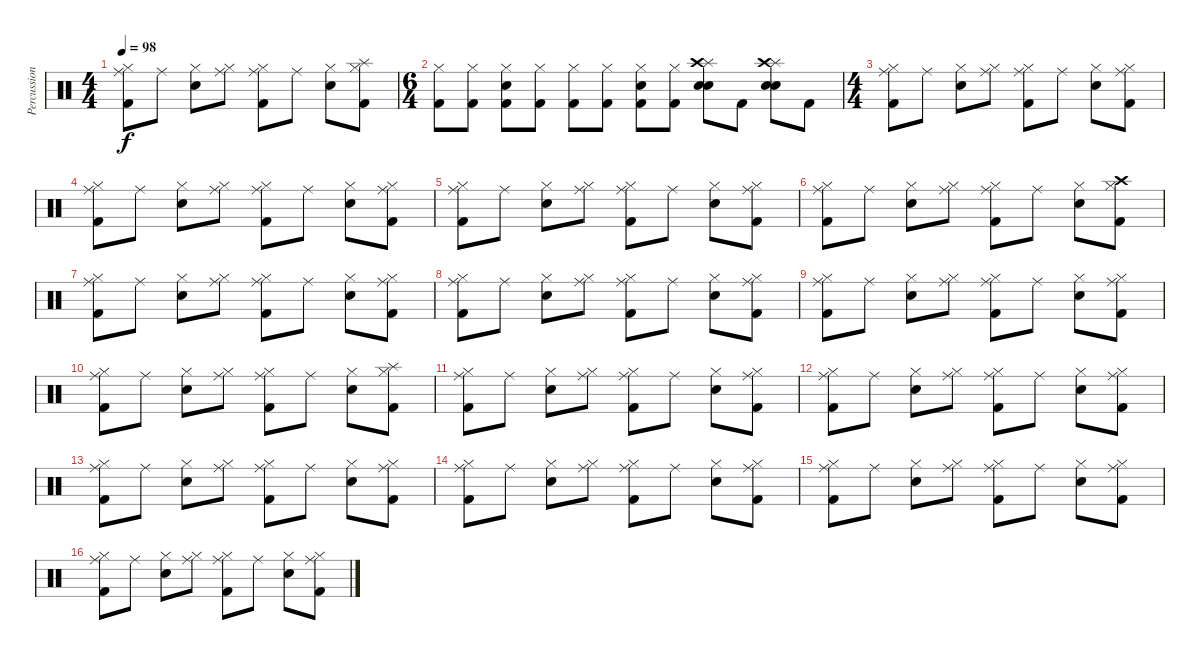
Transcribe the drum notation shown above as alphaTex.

\track ("Percussion" "Percussion") {instrument percussion}
\staff {score}
\articulation defaults
\ts (4 4)
\tempo 98
\clef neutral
\ks c
("Hi-Hat (closed)" "Kick (hit) 2" "Ride (middle)").8{dy f} "Ride (middle)".8 ("Hi-Hat (closed)" "Electric Snare (hit)").8 ("Hi-Hat (closed)" "Ride (middle)").8 ("Hi-Hat (closed)" "Kick (hit) 2" "Ride (middle)").8 "Ride (middle)".8 ("Hi-Hat (closed)" "Electric Snare (hit)").8 ("Hi-Hat (closed)" "Kick (hit) 2" "Splash (hit)").8 |
\ts (6 4)
("Hi-Hat (closed)" "Kick (hit) 2").8 ("Hi-Hat (closed)" "Kick (hit) 2").8 ("Hi-Hat (closed)" "Kick (hit) 2" "Electric Snare (hit)").8 ("Hi-Hat (closed)" "Kick (hit) 2").8 ("Hi-Hat (closed)" "Kick (hit) 2").8 ("Hi-Hat (closed)" "Kick (hit) 2").8 ("Hi-Hat (closed)" "Kick (hit) 2" "Electric Snare (hit)").8 ("Hi-Hat (closed)" "Kick (hit) 2").8 ("Splash (hit)" "Snare (hit) 2" "Electric Snare (hit)" "Crash high (hit)").8 "Kick (hit) 2".8 ("Splash (hit)" "Snare (hit) 2" "Electric Snare (hit)" "Crash high (hit)").8 "Kick (hit) 2".8 |
\ts (4 4)
("Hi-Hat (closed)" "Kick (hit) 2" "Ride (middle)").8 "Ride (middle)".8 ("Hi-Hat (closed)" "Electric Snare (hit)").8 ("Hi-Hat (closed)" "Ride (middle)").8 ("Hi-Hat (closed)" "Kick (hit) 2" "Ride (middle)").8 "Ride (middle)".8 ("Hi-Hat (closed)" "Electric Snare (hit)").8 ("Hi-Hat (closed)" "Kick (hit) 2" "Ride (middle)").8 |
("Hi-Hat (closed)" "Kick (hit) 2" "Ride (middle)").8 "Ride (middle)".8 ("Hi-Hat (closed)" "Electric Snare (hit)").8 ("Hi-Hat (closed)" "Ride (middle)").8 ("Hi-Hat (closed)" "Kick (hit) 2" "Ride (middle)").8 "Ride (middle)".8 ("Hi-Hat (closed)" "Electric Snare (hit)").8 ("Hi-Hat (closed)" "Kick (hit) 2" "Ride (middle)").8 |
("Hi-Hat (closed)" "Kick (hit) 2" "Ride (middle)").8 "Ride (middle)".8 ("Hi-Hat (closed)" "Electric Snare (hit)").8 ("Hi-Hat (closed)" "Ride (middle)").8 ("Hi-Hat (closed)" "Kick (hit) 2" "Ride (middle)").8 "Ride (middle)".8 ("Hi-Hat (closed)" "Electric Snare (hit)").8 ("Hi-Hat (closed)" "Kick (hit) 2" "Ride (middle)").8 |
("Hi-Hat (closed)" "Kick (hit) 2" "Ride (middle)").8 "Ride (middle)".8 ("Hi-Hat (closed)" "Electric Snare (hit)").8 ("Hi-Hat (closed)" "Ride (middle)").8 ("Hi-Hat (closed)" "Kick (hit) 2" "Ride (middle)").8 "Ride (middle)".8 ("Hi-Hat (closed)" "Electric Snare (hit)").8 ("Hi-Hat (closed)" "Kick (hit) 2" "Crash high (hit)").8 |
("Hi-Hat (closed)" "Kick (hit) 2" "Ride (middle)").8 "Ride (middle)".8 ("Hi-Hat (closed)" "Electric Snare (hit)").8 ("Hi-Hat (closed)" "Ride (middle)").8 ("Hi-Hat (closed)" "Kick (hit) 2" "Ride (middle)").8 "Ride (middle)".8 ("Hi-Hat (closed)" "Electric Snare (hit)").8 ("Hi-Hat (closed)" "Kick (hit) 2" "Ride (middle)").8 |
("Hi-Hat (closed)" "Kick (hit) 2" "Ride (middle)").8 "Ride (middle)".8 ("Hi-Hat (closed)" "Electric Snare (hit)").8 ("Hi-Hat (closed)" "Ride (middle)").8 ("Hi-Hat (closed)" "Kick (hit) 2" "Ride (middle)").8 "Ride (middle)".8 ("Hi-Hat (closed)" "Electric Snare (hit)").8 ("Hi-Hat (closed)" "Kick (hit) 2" "Ride (middle)").8 |
("Hi-Hat (closed)" "Kick (hit) 2" "Ride (middle)").8 "Ride (middle)".8 ("Hi-Hat (closed)" "Electric Snare (hit)").8 ("Hi-Hat (closed)" "Ride (middle)").8 ("Hi-Hat (closed)" "Kick (hit) 2" "Ride (middle)").8 "Ride (middle)".8 ("Hi-Hat (closed)" "Electric Snare (hit)").8 ("Hi-Hat (closed)" "Kick (hit) 2" "Ride (middle)").8 |
("Hi-Hat (closed)" "Kick (hit) 2" "Ride (middle)").8 "Ride (middle)".8 ("Hi-Hat (closed)" "Electric Snare (hit)").8 ("Hi-Hat (closed)" "Ride (middle)").8 ("Hi-Hat (closed)" "Kick (hit) 2" "Ride (middle)").8 "Ride (middle)".8 ("Hi-Hat (closed)" "Electric Snare (hit)").8 ("Hi-Hat (closed)" "Kick (hit) 2" "Splash (hit)").8 |
("Hi-Hat (closed)" "Kick (hit) 2" "Ride (middle)").8 "Ride (middle)".8 ("Hi-Hat (closed)" "Electric Snare (hit)").8 ("Hi-Hat (closed)" "Ride (middle)").8 ("Hi-Hat (closed)" "Kick (hit) 2" "Ride (middle)").8 "Ride (middle)".8 ("Hi-Hat (closed)" "Electric Snare (hit)").8 ("Hi-Hat (closed)" "Kick (hit) 2" "Ride (middle)").8 |
("Hi-Hat (closed)" "Kick (hit) 2" "Ride (middle)").8 "Ride (middle)".8 ("Hi-Hat (closed)" "Electric Snare (hit)").8 ("Hi-Hat (closed)" "Ride (middle)").8 ("Hi-Hat (closed)" "Kick (hit) 2" "Ride (middle)").8 "Ride (middle)".8 ("Hi-Hat (closed)" "Electric Snare (hit)").8 ("Hi-Hat (closed)" "Kick (hit) 2" "Ride (middle)").8 |
("Hi-Hat (closed)" "Kick (hit) 2" "Ride (middle)").8 "Ride (middle)".8 ("Hi-Hat (closed)" "Electric Snare (hit)").8 ("Hi-Hat (closed)" "Ride (middle)").8 ("Hi-Hat (closed)" "Kick (hit) 2" "Ride (middle)").8 "Ride (middle)".8 ("Hi-Hat (closed)" "Electric Snare (hit)").8 ("Hi-Hat (closed)" "Kick (hit) 2" "Ride (middle)").8 |
("Hi-Hat (closed)" "Kick (hit) 2" "Ride (middle)").8 "Ride (middle)".8 ("Hi-Hat (closed)" "Electric Snare (hit)").8 ("Hi-Hat (closed)" "Ride (middle)").8 ("Hi-Hat (closed)" "Kick (hit) 2" "Ride (middle)").8 "Ride (middle)".8 ("Hi-Hat (closed)" "Electric Snare (hit)").8 ("Hi-Hat (closed)" "Kick (hit) 2" "Ride (middle)").8 |
("Hi-Hat (closed)" "Kick (hit) 2" "Ride (middle)").8 "Ride (middle)".8 ("Hi-Hat (closed)" "Electric Snare (hit)").8 ("Hi-Hat (closed)" "Ride (middle)").8 ("Hi-Hat (closed)" "Kick (hit) 2" "Ride (middle)").8 "Ride (middle)".8 ("Hi-Hat (closed)" "Electric Snare (hit)").8 ("Hi-Hat (closed)" "Kick (hit) 2" "Ride (middle)").8 |
("Hi-Hat (closed)" "Kick (hit) 2" "Ride (middle)").8 "Ride (middle)".8 ("Hi-Hat (closed)" "Electric Snare (hit)").8 ("Hi-Hat (closed)" "Ride (middle)").8 ("Hi-Hat (closed)" "Kick (hit) 2" "Ride (middle)").8 "Ride (middle)".8 ("Hi-Hat (closed)" "Electric Snare (hit)").8 ("Hi-Hat (closed)" "Kick (hit) 2" "Ride (middle)").8
